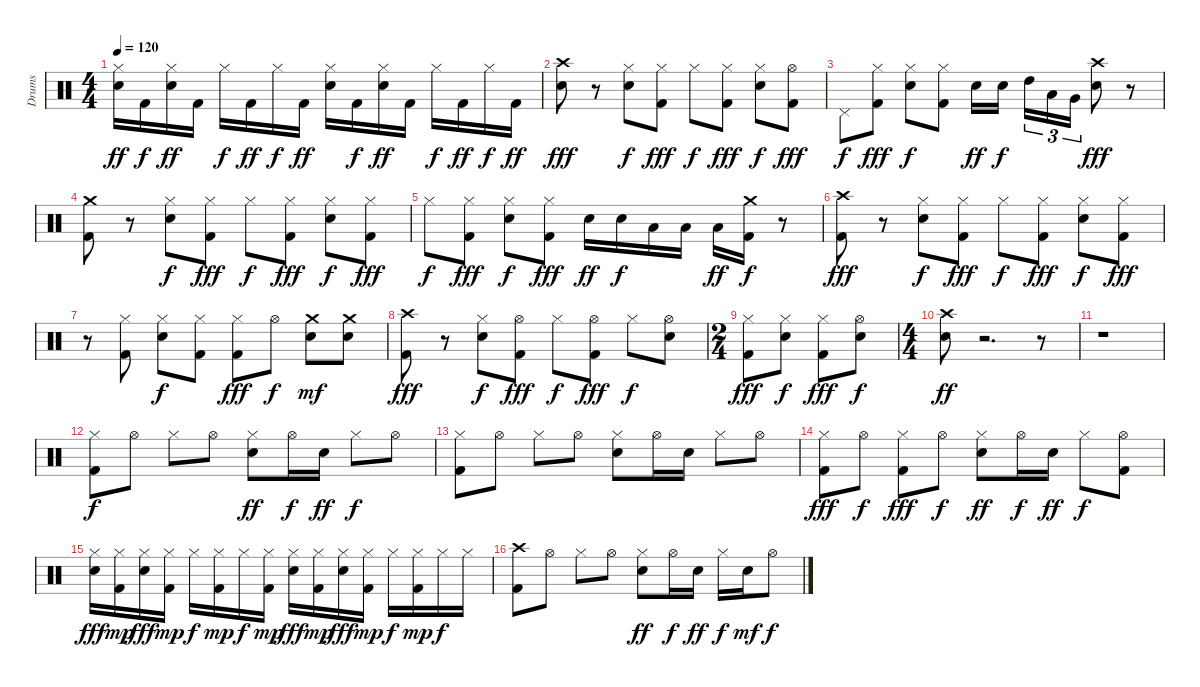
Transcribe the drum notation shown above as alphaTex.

\track ("Drums" "Drums") {instrument percussion}
\staff {score}
\articulation defaults
\ts (4 4)
\tempo 120
\clef neutral
\ks c
("Snare (hit) 2" "Hi-Hat (closed)").16{dy ff} "Kick (hit) 2".16{dy f} ("Snare (hit) 2" "Hi-Hat (closed)").16{dy ff} "Kick (hit) 2".16 "Hi-Hat (closed)".16{dy f} "Kick (hit) 2".16{dy ff} "Hi-Hat (closed)".16{dy f} "Kick (hit) 2".16{dy ff} ("Snare (hit) 2" "Hi-Hat (closed)").16 "Kick (hit) 2".16{dy f} ("Snare (hit) 2" "Hi-Hat (closed)").16{dy ff} "Kick (hit) 2".16 "Hi-Hat (closed)".16{dy f} "Kick (hit) 2".16{dy ff} "Hi-Hat (closed)".16{dy f} "Kick (hit) 2".16{dy ff} |
("Snare (hit) 2" "Crash high (hit)").8{dy fff} r.8 ("Snare (hit) 2" "Hi-Hat (closed)").8{dy f} ("Kick (hit) 2" "Hi-Hat (closed)").8{dy fff} "Hi-Hat (closed)".8{dy f} ("Kick (hit) 2" "Hi-Hat (closed)").8{dy fff} ("Snare (hit) 2" "Hi-Hat (closed)").8{dy f} ("Kick (hit) 2" "Hi-Hat (open)").8{dy fff} |
"Pedal Hi-Hat (hit)".8{dy f} ("Kick (hit) 2" "Hi-Hat (closed)").8{dy fff} ("Snare (hit) 2" "Hi-Hat (closed)").8{dy f} ("Kick (hit) 2" "Hi-Hat (closed)").8 "Snare (hit) 2".16{dy ff} "Snare (hit) 2".16{dy f} "High Tom (hit)".16{tu (3 2)} "Low Tom (hit)".16{tu (3 2)} "Very Low Tom (hit)".16{tu (3 2)} ("Snare (hit) 2" "Crash high (hit)").8{dy fff} r.8 |
("Kick (hit) 2" "Crash medium (hit)").8 r.8 ("Snare (hit) 2" "Hi-Hat (closed)").8{dy f} ("Kick (hit) 2" "Hi-Hat (closed)").8{dy fff} "Hi-Hat (closed)".8{dy f} ("Kick (hit) 2" "Hi-Hat (closed)").8{dy fff} ("Snare (hit) 2" "Hi-Hat (closed)").8{dy f} ("Kick (hit) 2" "Hi-Hat (closed)").8{dy fff} |
"Hi-Hat (closed)".8{dy f} ("Kick (hit) 2" "Hi-Hat (closed)").8{dy fff} ("Snare (hit) 2" "Hi-Hat (closed)").8{dy f} ("Kick (hit) 2" "Hi-Hat (closed)").8{dy fff} "Snare (hit) 2".16{dy ff} "Snare (hit) 2".16{dy f} "Low Tom (hit)".16 "Low Tom (hit)".16 "Low Tom (hit)".16{dy ff} ("Kick (hit) 2" "Crash medium (hit)").16{dy f} r.8 |
("Kick (hit) 2" "Crash high (hit)").8{dy fff} r.8 ("Snare (hit) 2" "Hi-Hat (closed)").8{dy f} ("Kick (hit) 2" "Hi-Hat (closed)").8{dy fff} "Hi-Hat (closed)".8{dy f} ("Kick (hit) 2" "Hi-Hat (closed)").8{dy fff} ("Snare (hit) 2" "Hi-Hat (closed)").8{dy f} ("Kick (hit) 2" "Hi-Hat (closed)").8{dy fff} |
r.8 ("Kick (hit) 2" "Hi-Hat (closed)").8 ("Snare (hit) 2" "Hi-Hat (closed)").8{dy f} ("Kick (hit) 2" "Hi-Hat (closed)").8 ("Kick (hit) 2" "Hi-Hat (closed)").8{dy fff} "Hi-Hat (open)".8{dy f} ("Snare (hit) 2" "Crash medium (hit)").8{dy mf} ("Snare (hit) 2" "Crash medium (hit)").8 |
("Kick (hit) 2" "Crash high (hit)").8{dy fff} r.8 ("Snare (hit) 2" "Hi-Hat (closed)").8{dy f} ("Kick (hit) 2" "Hi-Hat (open)").8{dy fff} "Hi-Hat (closed)".8{dy f} ("Kick (hit) 2" "Hi-Hat (open)").8{dy fff} "Hi-Hat (closed)".8{dy f} ("Snare (hit) 2" "Hi-Hat (open)").8 |
\ts (2 4)
("Kick (hit) 2" "Hi-Hat (closed)").8{dy fff} ("Snare (hit) 2" "Hi-Hat (closed)").8{dy f} ("Kick (hit) 2" "Hi-Hat (closed)").8{dy fff} ("Snare (hit) 2" "Hi-Hat (open)").8{dy f} |
\ts (4 4)
("Snare (hit) 2" "Crash high (hit)").8{dy ff} r.2{d} r.8 |
r.1 |
("Kick (hit) 2" "Hi-Hat (closed)").8{dy f} "Hi-Hat (open)".8 "Hi-Hat (closed)".8 "Hi-Hat (open)".8 ("Snare (hit) 2" "Hi-Hat (closed)").8{dy ff} "Hi-Hat (open)".16{dy f} "Snare (hit) 2".16{dy ff} "Hi-Hat (closed)".8{dy f} "Hi-Hat (open)".8 |
("Kick (hit) 2" "Hi-Hat (closed)").8 "Hi-Hat (open)".8 "Hi-Hat (closed)".8 "Hi-Hat (open)".8 ("Snare (hit) 2" "Hi-Hat (closed)").8 "Hi-Hat (open)".16 "Snare (hit) 2".16 "Hi-Hat (closed)".8 "Hi-Hat (open)".8 |
("Kick (hit) 2" "Hi-Hat (closed)").8{dy fff} "Hi-Hat (open)".8{dy f} ("Kick (hit) 2" "Hi-Hat (closed)").8{dy fff} "Hi-Hat (open)".8{dy f} ("Snare (hit) 2" "Hi-Hat (closed)").8{dy ff} "Hi-Hat (open)".16{dy f} "Snare (hit) 2".16{dy ff} "Hi-Hat (closed)".8{dy f} ("Kick (hit) 2" "Hi-Hat (open)").8 |
("Snare (hit) 2" "Hi-Hat (closed)").16{dy fff} ("Kick (hit) 2" "Hi-Hat (closed)").16{dy mp} ("Snare (hit) 2" "Hi-Hat (closed)").16{dy fff} ("Kick (hit) 2" "Hi-Hat (closed)").16{dy mp} "Hi-Hat (closed)".16{dy f} ("Kick (hit) 2" "Hi-Hat (closed)").16{dy mp} "Hi-Hat (closed)".16{dy f} ("Kick (hit) 2" "Hi-Hat (closed)").16{dy mp} ("Snare (hit) 2" "Hi-Hat (closed)").16{dy fff} ("Kick (hit) 2" "Hi-Hat (closed)").16{dy mp} ("Snare (hit) 2" "Hi-Hat (closed)").16{dy fff} ("Kick (hit) 2" "Hi-Hat (closed)").16{dy mp} "Hi-Hat (closed)".16{dy f} ("Kick (hit) 2" "Hi-Hat (closed)").16{dy mp} "Hi-Hat (closed)".16{dy f} "Hi-Hat (closed)".16 |
("Kick (hit) 2" "Crash high (hit)").8 "Hi-Hat (open)".8 "Hi-Hat (closed)".8 "Hi-Hat (open)".8 ("Snare (hit) 2" "Hi-Hat (closed)").8{dy ff} "Hi-Hat (open)".16{dy f} "Snare (hit) 2".16{dy ff} "Hi-Hat (closed)".16{dy f} "Snare (hit) 2".16{dy mf} "Hi-Hat (open)".8{dy f}
